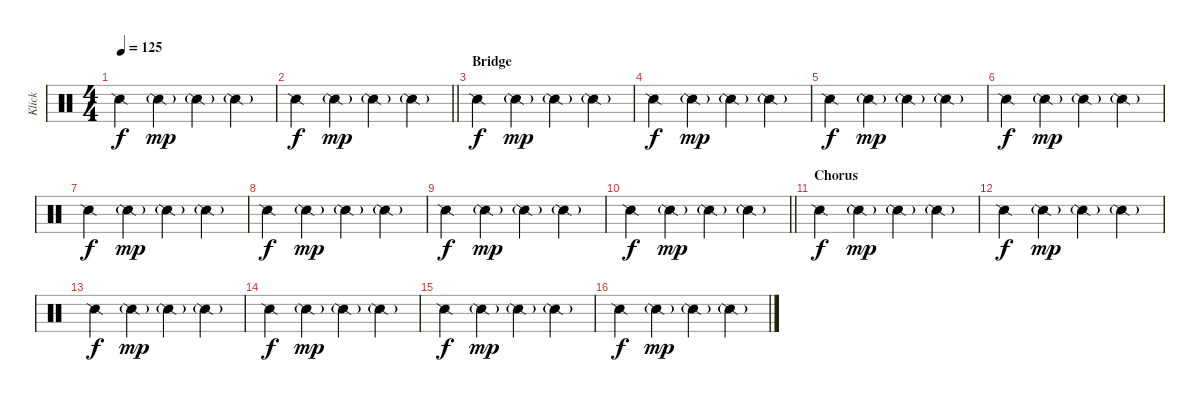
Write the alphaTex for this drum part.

\track ("Klick" "Klick") {instrument percussion}
\staff {score}
\articulation defaults
\ts (4 4)
\tempo 125
\clef neutral
\ks c "Snare (side stick) 2".4{dy f} "Snare (side stick) 2"{g}.4{dy mp} "Snare (side stick) 2"{g}.4 "Snare (side stick) 2"{g}.4
|
\barLineRight lightlight "Snare (side stick) 2".4{dy f} "Snare (side stick) 2"{g}.4{dy mp} "Snare (side stick) 2"{g}.4 "Snare (side stick) 2"{g}.4
|
\section ("" "Bridge")
"Snare (side stick) 2".4{dy f} "Snare (side stick) 2"{g}.4{dy mp} "Snare (side stick) 2"{g}.4 "Snare (side stick) 2"{g}.4 |
"Snare (side stick) 2".4{dy f} "Snare (side stick) 2"{g}.4{dy mp} "Snare (side stick) 2"{g}.4 "Snare (side stick) 2"{g}.4 |
"Snare (side stick) 2".4{dy f} "Snare (side stick) 2"{g}.4{dy mp} "Snare (side stick) 2"{g}.4 "Snare (side stick) 2"{g}.4 |
"Snare (side stick) 2".4{dy f} "Snare (side stick) 2"{g}.4{dy mp} "Snare (side stick) 2"{g}.4 "Snare (side stick) 2"{g}.4 |
"Snare (side stick) 2".4{dy f} "Snare (side stick) 2"{g}.4{dy mp} "Snare (side stick) 2"{g}.4 "Snare (side stick) 2"{g}.4 |
"Snare (side stick) 2".4{dy f} "Snare (side stick) 2"{g}.4{dy mp} "Snare (side stick) 2"{g}.4 "Snare (side stick) 2"{g}.4 |
"Snare (side stick) 2".4{dy f} "Snare (side stick) 2"{g}.4{dy mp} "Snare (side stick) 2"{g}.4 "Snare (side stick) 2"{g}.4 |
\barLineRight lightlight "Snare (side stick) 2".4{dy f} "Snare (side stick) 2"{g}.4{dy mp} "Snare (side stick) 2"{g}.4 "Snare (side stick) 2"{g}.4
|
\section ("" "Chorus")
"Snare (side stick) 2".4{dy f} "Snare (side stick) 2"{g}.4{dy mp} "Snare (side stick) 2"{g}.4 "Snare (side stick) 2"{g}.4 |
"Snare (side stick) 2".4{dy f} "Snare (side stick) 2"{g}.4{dy mp} "Snare (side stick) 2"{g}.4 "Snare (side stick) 2"{g}.4 |
"Snare (side stick) 2".4{dy f} "Snare (side stick) 2"{g}.4{dy mp} "Snare (side stick) 2"{g}.4 "Snare (side stick) 2"{g}.4 |
"Snare (side stick) 2".4{dy f} "Snare (side stick) 2"{g}.4{dy mp} "Snare (side stick) 2"{g}.4 "Snare (side stick) 2"{g}.4 |
"Snare (side stick) 2".4{dy f} "Snare (side stick) 2"{g}.4{dy mp} "Snare (side stick) 2"{g}.4 "Snare (side stick) 2"{g}.4 |
"Snare (side stick) 2".4{dy f} "Snare (side stick) 2"{g}.4{dy mp} "Snare (side stick) 2"{g}.4 "Snare (side stick) 2"{g}.4
